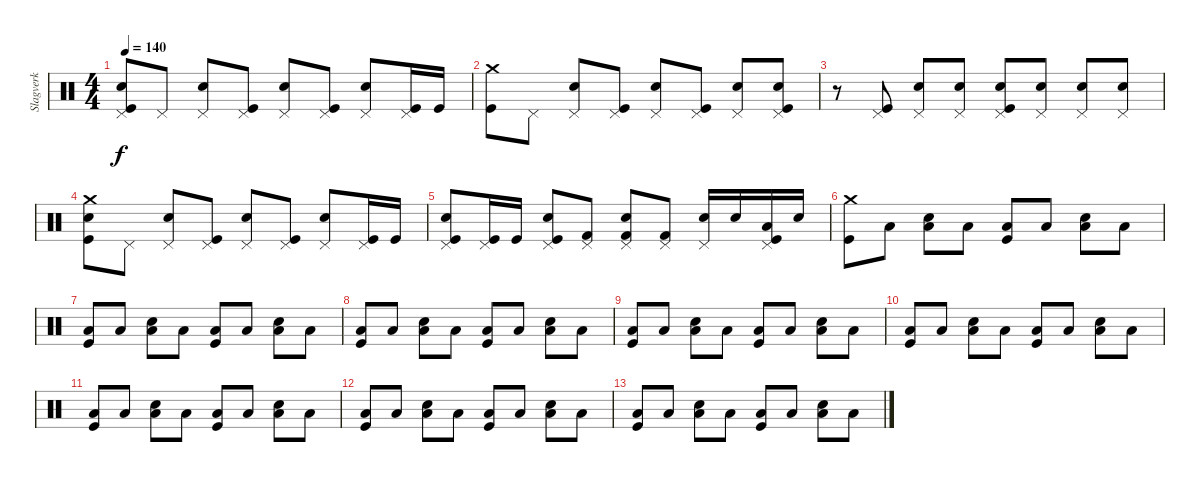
\track ("Slagverk" "Slagverk") {instrument percussion}
\staff {score}
\articulation defaults
\ts (4 4)
\tempo 140
\clef neutral
\ks c
("Pedal Hi-Hat (hit)" "Snare (hit) 2" "Kick (hit)").8{dy f} "Pedal Hi-Hat (hit)".8 ("Pedal Hi-Hat (hit)" "Snare (hit) 2").8 ("Pedal Hi-Hat (hit)" "Kick (hit)").8 ("Pedal Hi-Hat (hit)" "Snare (hit) 2").8 ("Pedal Hi-Hat (hit)" "Kick (hit)").8 ("Pedal Hi-Hat (hit)" "Snare (hit) 2").8 ("Pedal Hi-Hat (hit)" "Kick (hit)").16 "Kick (hit)".16 |
("Crash medium (hit)" "Kick (hit)").8 "Pedal Hi-Hat (hit)".8 ("Pedal Hi-Hat (hit)" "Snare (hit) 2").8 ("Pedal Hi-Hat (hit)" "Kick (hit)").8 ("Pedal Hi-Hat (hit)" "Electric Snare (hit)").8 ("Pedal Hi-Hat (hit)" "Kick (hit)").8 ("Pedal Hi-Hat (hit)" "Electric Snare (hit)").8 ("Pedal Hi-Hat (hit)" "Snare (hit) 2" "Kick (hit)").8 |
r.8 ("Pedal Hi-Hat (hit)" "Kick (hit)").8 ("Pedal Hi-Hat (hit)" "Snare (hit) 2").8 ("Pedal Hi-Hat (hit)" "Snare (hit) 2").8 ("Pedal Hi-Hat (hit)" "Snare (hit) 2" "Kick (hit)").8 ("Pedal Hi-Hat (hit)" "Snare (hit) 2").8 ("Pedal Hi-Hat (hit)" "Snare (hit) 2").8 ("Pedal Hi-Hat (hit)" "Snare (hit) 2").8 |
("Crash medium (hit)" "Snare (hit) 2" "Kick (hit)").8 "Pedal Hi-Hat (hit)".8 ("Pedal Hi-Hat (hit)" "Snare (hit) 2").8 ("Pedal Hi-Hat (hit)" "Kick (hit)").8 ("Pedal Hi-Hat (hit)" "Snare (hit) 2").8 ("Pedal Hi-Hat (hit)" "Kick (hit)").8 ("Pedal Hi-Hat (hit)" "Snare (hit) 2").8 ("Pedal Hi-Hat (hit)" "Kick (hit)").16 "Kick (hit)".16 |
("Pedal Hi-Hat (hit)" "Snare (hit) 2" "Kick (hit)").8 ("Pedal Hi-Hat (hit)" "Kick (hit)").16 "Kick (hit)".16 ("Pedal Hi-Hat (hit)" "Electric Snare (hit)" "Kick (hit)").8 ("Pedal Hi-Hat (hit)" "Kick (hit) 2").8 ("Pedal Hi-Hat (hit)" "Electric Snare (hit)" "Kick (hit) 2").8 ("Pedal Hi-Hat (hit)" "Kick (hit) 2").8 ("Pedal Hi-Hat (hit)" "Snare (hit) 2").16 "Electric Snare (hit)".16 ("Pedal Hi-Hat (hit)" "Low Floor Tom (hit)" "Kick (hit)").16 "Electric Snare (hit)".16 |
("Crash medium (hit)" "Kick (hit)").8{volume 0} "Low Floor Tom (hit)".8 ("Low Floor Tom (hit)" "Snare (hit) 2").8 "Low Floor Tom (hit)".8 ("Low Floor Tom (hit)" "Kick (hit)").8 "Low Floor Tom (hit)".8 ("Low Floor Tom (hit)" "Snare (hit) 2").8 "Low Floor Tom (hit)".8 |
("Low Floor Tom (hit)" "Kick (hit)").8 "Low Floor Tom (hit)".8 ("Low Floor Tom (hit)" "Snare (hit) 2").8 "Low Floor Tom (hit)".8 ("Low Floor Tom (hit)" "Kick (hit)").8 "Low Floor Tom (hit)".8 ("Low Floor Tom (hit)" "Snare (hit) 2").8 "Low Floor Tom (hit)".8 |
("Low Floor Tom (hit)" "Kick (hit)").8 "Low Floor Tom (hit)".8 ("Low Floor Tom (hit)" "Snare (hit) 2").8 "Low Floor Tom (hit)".8 ("Low Floor Tom (hit)" "Kick (hit)").8 "Low Floor Tom (hit)".8 ("Low Floor Tom (hit)" "Snare (hit) 2").8 "Low Floor Tom (hit)".8 |
("Low Floor Tom (hit)" "Kick (hit)").8 "Low Floor Tom (hit)".8 ("Low Floor Tom (hit)" "Snare (hit) 2").8 "Low Floor Tom (hit)".8 ("Low Floor Tom (hit)" "Kick (hit)").8 "Low Floor Tom (hit)".8 ("Low Floor Tom (hit)" "Snare (hit) 2").8 "Low Floor Tom (hit)".8 |
("Low Floor Tom (hit)" "Kick (hit)").8 "Low Floor Tom (hit)".8 ("Low Floor Tom (hit)" "Snare (hit) 2").8 "Low Floor Tom (hit)".8 ("Low Floor Tom (hit)" "Kick (hit)").8 "Low Floor Tom (hit)".8 ("Low Floor Tom (hit)" "Snare (hit) 2").8 "Low Floor Tom (hit)".8 |
("Low Floor Tom (hit)" "Kick (hit)").8 "Low Floor Tom (hit)".8 ("Low Floor Tom (hit)" "Snare (hit) 2").8 "Low Floor Tom (hit)".8 ("Low Floor Tom (hit)" "Kick (hit)").8 "Low Floor Tom (hit)".8 ("Low Floor Tom (hit)" "Snare (hit) 2").8 "Low Floor Tom (hit)".8 |
("Low Floor Tom (hit)" "Kick (hit)").8 "Low Floor Tom (hit)".8 ("Low Floor Tom (hit)" "Snare (hit) 2").8 "Low Floor Tom (hit)".8 ("Low Floor Tom (hit)" "Kick (hit)").8 "Low Floor Tom (hit)".8 ("Low Floor Tom (hit)" "Snare (hit) 2").8 "Low Floor Tom (hit)".8 |
("Low Floor Tom (hit)" "Kick (hit)").8 "Low Floor Tom (hit)".8 ("Low Floor Tom (hit)" "Snare (hit) 2").8 "Low Floor Tom (hit)".8 ("Low Floor Tom (hit)" "Kick (hit)").8 "Low Floor Tom (hit)".8 ("Low Floor Tom (hit)" "Snare (hit) 2").8 "Low Floor Tom (hit)".8
